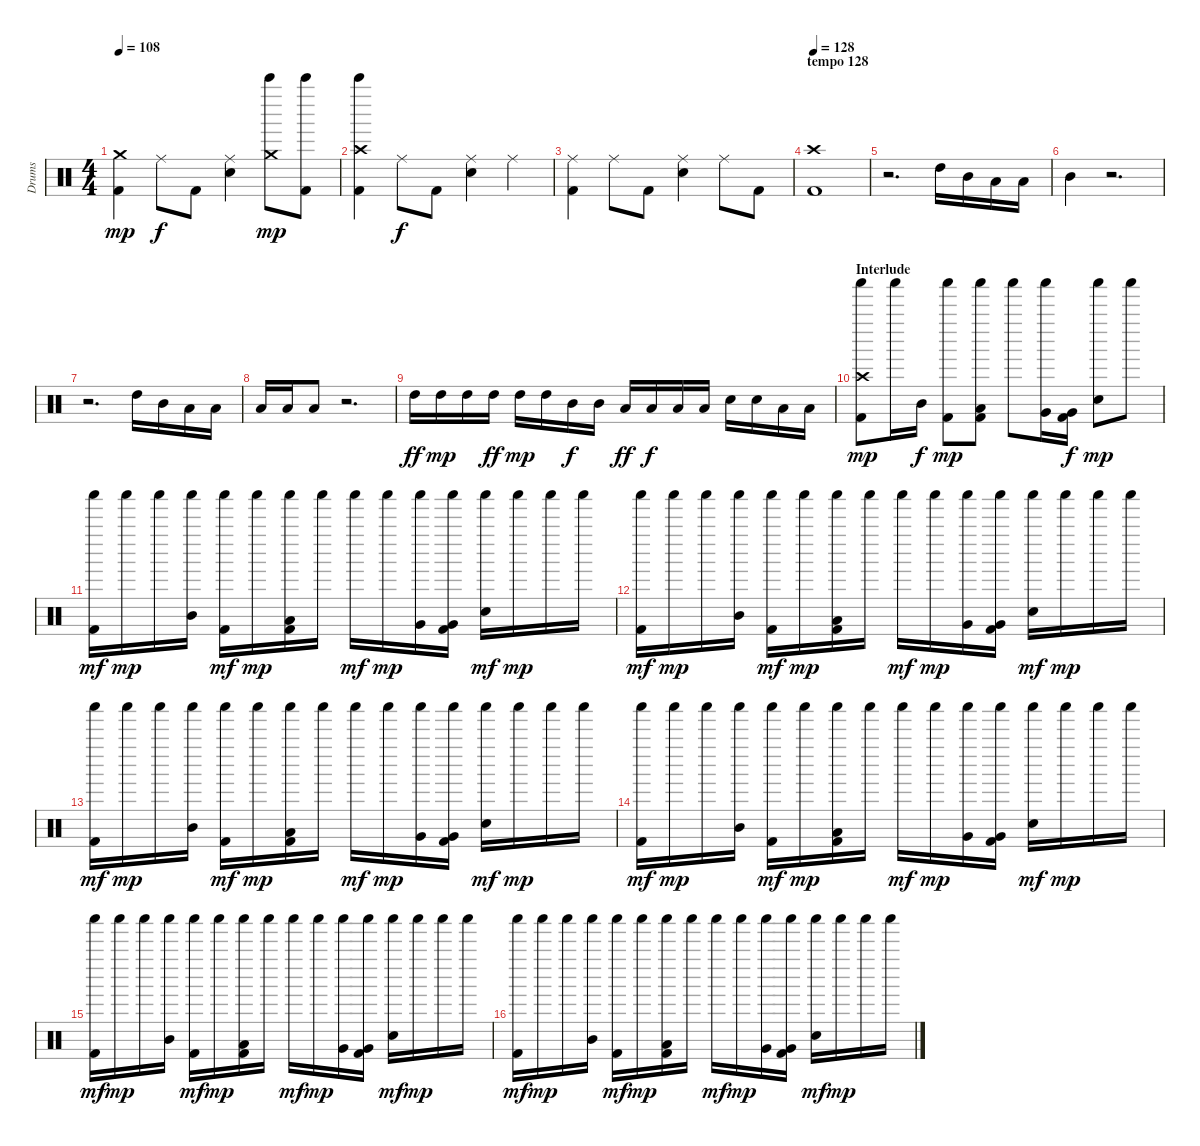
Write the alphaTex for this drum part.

\track ("Drums" "Drums") {instrument percussion}
\staff {score}
\articulation defaults
\ts (4 4)
\tempo 108
\clef neutral
\ks c
("Crash medium (hit)" "Kick (hit) 2").4{dy mp} "Ride (middle)".8{dy f} "Kick (hit) 2".8 ("Ride (middle)" "Electric Snare (hit)").4 ("Crash medium (hit)" "Bell Tree (hit)").8{dy mp} ("Bell Tree (hit)" "Kick (hit) 2").8 |
("Crash high (hit)" "Bell Tree (hit)" "Kick (hit) 2").4 "Ride (middle)".8{dy f} "Kick (hit) 2".8 ("Ride (middle)" "Electric Snare (hit)").4 "Ride (middle)".4 |
("Ride (middle)" "Kick (hit) 2").4 "Ride (middle)".8 "Kick (hit) 2".8 ("Ride (middle)" "Electric Snare (hit)").4 "Ride (middle)".8 "Kick (hit) 2".8 |
\section ("" "tempo 128")
\tempo 128
("Crash high (hit)" "Kick (hit) 2").1 |
r.2{d} "High Tom (hit)".16{volume 11} "Mid Tom (hit)".16 "Low Tom (hit)".16 "Low Tom (hit)".16 |
"Mid Tom (hit)".4 r.2{d} |
r.2{d} "High Tom (hit)".16 "Mid Tom (hit)".16 "Low Tom (hit)".16 "Low Tom (hit)".16 |
"Low Tom (hit)".16 "Low Tom (hit)".16 "Low Tom (hit)".8 r.2{d} |
"High Tom (hit)".16{dy ff} "High Tom (hit)".16{dy mp} "High Tom (hit)".16 "High Tom (hit)".16{dy ff} "High Tom (hit)".16{dy mp} "High Tom (hit)".16 "Mid Tom (hit)".16{dy f} "Mid Tom (hit)".16 "Low Tom (hit)".16{dy ff} "Low Tom (hit)".16{dy f} "Low Tom (hit)".16 "Low Tom (hit)".16 "Electric Snare (hit)".16 "Electric Snare (hit)".16 "Low Tom (hit)".16 "Low Tom (hit)".16 |
\section ("" "Interlude")
("Crash high (hit)" "Shaker (hit)" "Kick (hit) 2").8{dy mp} "Shaker (hit)".16 "Mid Tom (hit)".16{dy f} ("Shaker (hit)" "Kick (hit) 2").8{dy mp} ("Shaker (hit)" "Low Tom (hit)" "Kick (hit) 2").8 "Shaker (hit)".8 ("Shaker (hit)" "Very Low Tom (hit)").16 ("Very Low Tom (hit)" "Kick (hit) 2").16{dy f} ("Shaker (hit)" "Electric Snare (hit)").8{dy mp} "Shaker (hit)".8 |
("Shaker (hit)" "Kick (hit) 2").16{dy mf} "Shaker (hit)".16{dy mp} "Shaker (hit)".16 ("Shaker (hit)" "Mid Tom (hit)").16 ("Shaker (hit)" "Kick (hit) 2").16{dy mf} "Shaker (hit)".16{dy mp} ("Shaker (hit)" "Low Tom (hit)" "Kick (hit) 2").16 "Shaker (hit)".16 "Shaker (hit)".16{dy mf} "Shaker (hit)".16{dy mp} ("Shaker (hit)" "Very Low Tom (hit)").16 ("Shaker (hit)" "Very Low Tom (hit)" "Kick (hit) 2").16 ("Shaker (hit)" "Electric Snare (hit)").16{dy mf} "Shaker (hit)".16{dy mp} "Shaker (hit)".16 "Shaker (hit)".16 |
("Shaker (hit)" "Kick (hit) 2").16{dy mf} "Shaker (hit)".16{dy mp} "Shaker (hit)".16 ("Shaker (hit)" "Mid Tom (hit)").16 ("Shaker (hit)" "Kick (hit) 2").16{dy mf} "Shaker (hit)".16{dy mp} ("Shaker (hit)" "Low Tom (hit)" "Kick (hit) 2").16 "Shaker (hit)".16 "Shaker (hit)".16{dy mf} "Shaker (hit)".16{dy mp} ("Shaker (hit)" "Very Low Tom (hit)").16 ("Shaker (hit)" "Very Low Tom (hit)" "Kick (hit) 2").16 ("Shaker (hit)" "Electric Snare (hit)").16{dy mf} "Shaker (hit)".16{dy mp} "Shaker (hit)".16 "Shaker (hit)".16 |
("Shaker (hit)" "Kick (hit) 2").16{dy mf} "Shaker (hit)".16{dy mp} "Shaker (hit)".16 ("Shaker (hit)" "Mid Tom (hit)").16 ("Shaker (hit)" "Kick (hit) 2").16{dy mf} "Shaker (hit)".16{dy mp} ("Shaker (hit)" "Low Tom (hit)" "Kick (hit) 2").16 "Shaker (hit)".16 "Shaker (hit)".16{dy mf} "Shaker (hit)".16{dy mp} ("Shaker (hit)" "Very Low Tom (hit)").16 ("Shaker (hit)" "Very Low Tom (hit)" "Kick (hit) 2").16 ("Shaker (hit)" "Electric Snare (hit)").16{dy mf} "Shaker (hit)".16{dy mp} "Shaker (hit)".16 "Shaker (hit)".16 |
("Shaker (hit)" "Kick (hit) 2").16{dy mf} "Shaker (hit)".16{dy mp} "Shaker (hit)".16 ("Shaker (hit)" "Mid Tom (hit)").16 ("Shaker (hit)" "Kick (hit) 2").16{dy mf} "Shaker (hit)".16{dy mp} ("Shaker (hit)" "Low Tom (hit)" "Kick (hit) 2").16 "Shaker (hit)".16 "Shaker (hit)".16{dy mf} "Shaker (hit)".16{dy mp} ("Shaker (hit)" "Very Low Tom (hit)").16 ("Shaker (hit)" "Very Low Tom (hit)" "Kick (hit) 2").16 ("Shaker (hit)" "Electric Snare (hit)").16{dy mf} "Shaker (hit)".16{dy mp} "Shaker (hit)".16 "Shaker (hit)".16 |
("Shaker (hit)" "Kick (hit) 2").16{dy mf} "Shaker (hit)".16{dy mp} "Shaker (hit)".16 ("Shaker (hit)" "Mid Tom (hit)").16 ("Shaker (hit)" "Kick (hit) 2").16{dy mf} "Shaker (hit)".16{dy mp} ("Shaker (hit)" "Low Tom (hit)" "Kick (hit) 2").16 "Shaker (hit)".16 "Shaker (hit)".16{dy mf} "Shaker (hit)".16{dy mp} ("Shaker (hit)" "Very Low Tom (hit)").16 ("Shaker (hit)" "Very Low Tom (hit)" "Kick (hit) 2").16 ("Shaker (hit)" "Electric Snare (hit)").16{dy mf} "Shaker (hit)".16{dy mp} "Shaker (hit)".16 "Shaker (hit)".16 |
("Shaker (hit)" "Kick (hit) 2").16{dy mf} "Shaker (hit)".16{dy mp} "Shaker (hit)".16 ("Shaker (hit)" "Mid Tom (hit)").16 ("Shaker (hit)" "Kick (hit) 2").16{dy mf} "Shaker (hit)".16{dy mp} ("Shaker (hit)" "Low Tom (hit)" "Kick (hit) 2").16 "Shaker (hit)".16 "Shaker (hit)".16{dy mf} "Shaker (hit)".16{dy mp} ("Shaker (hit)" "Very Low Tom (hit)").16 ("Shaker (hit)" "Very Low Tom (hit)" "Kick (hit) 2").16 ("Shaker (hit)" "Electric Snare (hit)").16{dy mf} "Shaker (hit)".16{dy mp} "Shaker (hit)".16 "Shaker (hit)".16
